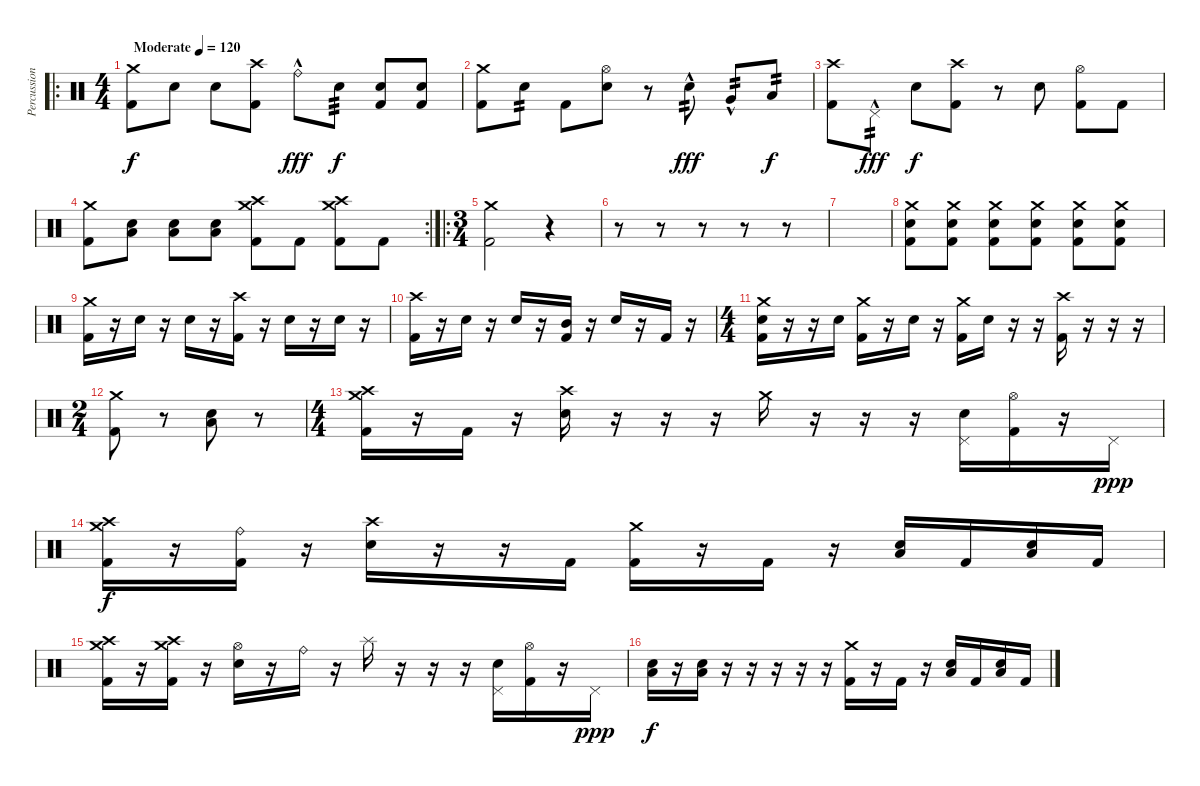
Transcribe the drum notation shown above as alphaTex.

\track ("Percussion" "Percussion") {instrument percussion}
\staff {score}
\articulation defaults
\ro
\ts (4 4)
\tempo (120 "Moderate")
\clef neutral
\ks c
("Crash medium (hit)" "Kick (hit) 2").8{dy f} "Electric Snare (hit)".8 "Electric Snare (hit)".8 ("Crash high (hit)" "Kick (hit) 2").8 "Ride (bell)"{hac}.8{dy fff} "Electric Snare (hit)".8{tp 3 dy f} ("Kick (hit) 2" "Electric Snare (hit)").8 ("Kick (hit) 2" "Electric Snare (hit)").8 |
("Crash medium (hit)" "Kick (hit) 2").8 "Electric Snare (hit)".8{tp 2} "Kick (hit) 2".8 ("Hi-Hat (open)" "Electric Snare (hit)").8 r.8 "Electric Snare (hit)"{hac}.8{tp 2 dy fff} "Very Low Tom (hit)"{hac}.8{tp 2} "Low Floor Tom (hit)".8{tp 2 dy f} |
("Crash high (hit)" "Kick (hit) 2").8 "Pedal Hi-Hat (hit)"{hac}.8{tp 2 dy fff} "Electric Snare (hit)".8{dy f} ("Crash high (hit)" "Kick (hit) 2").8 r.8 "Electric Snare (hit)".8 ("Hi-Hat (open)" "Kick (hit) 2").8 "Kick (hit) 2".8 |
\rc 2
("Crash medium (hit)" "Kick (hit) 2").8 ("Low Floor Tom (hit)" "Electric Snare (hit)").8 ("Low Floor Tom (hit)" "Electric Snare (hit)").8 ("Low Floor Tom (hit)" "Electric Snare (hit)").8 ("Crash medium (hit)" "Crash high (hit)" "Kick (hit) 2").8 "Kick (hit) 2".8 ("Crash medium (hit)" "Crash high (hit)" "Kick (hit) 2").8 "Kick (hit) 2".8 |
\ro
\ts (3 4)
("Crash medium (hit)" "Kick (hit) 2").2 r.4 |
r.8 r.8 r.8 r.8 r.8 |
|
("Crash medium (hit)" "Kick (hit) 2" "Electric Snare (hit)").8 ("Crash medium (hit)" "Kick (hit) 2" "Electric Snare (hit)").8 ("Crash medium (hit)" "Kick (hit) 2" "Electric Snare (hit)").8 ("Crash medium (hit)" "Kick (hit) 2" "Electric Snare (hit)").8 ("Crash medium (hit)" "Kick (hit) 2" "Electric Snare (hit)").8 ("Crash medium (hit)" "Kick (hit) 2" "Electric Snare (hit)").8 |
("Crash medium (hit)" "Kick (hit) 2").16 r.16 "Electric Snare (hit)".16 r.16 "Electric Snare (hit)".16 r.16 ("Crash high (hit)" "Kick (hit) 2").16 r.16 "Electric Snare (hit)".16 r.16 "Electric Snare (hit)".16 r.16 |
("Crash high (hit)" "Kick (hit) 2").16 r.16 "Electric Snare (hit)".16 r.16 "Electric Snare (hit)".16 r.16 ("Mid Tom (hit)" "Kick (hit) 2").16 r.16 "Electric Snare (hit)".16 r.16 "Kick (hit) 2".16 r.16 |
\ts (4 4)
("Crash medium (hit)" "Kick (hit) 2" "Electric Snare (hit)").16 r.16 r.16 "Electric Snare (hit)".16 ("Crash medium (hit)" "Kick (hit) 2").16 r.16 "Electric Snare (hit)".16 r.16 ("Crash medium (hit)" "Kick (hit) 2").16 "Electric Snare (hit)".16 r.16 r.16 ("Crash high (hit)" "Kick (hit) 2").16 r.16 r.16 r.16 |
\ts (2 4)
("Crash medium (hit)" "Kick (hit) 2").8 r.8 ("Low Floor Tom (hit)" "Electric Snare (hit)").8 r.8 |
\ts (4 4)
("Crash medium (hit)" "Crash high (hit)" "Kick (hit) 2").16 r.16 "Kick (hit) 2".16 r.16 ("Crash high (hit)" "Electric Snare (hit)").16 r.16 r.16 r.16 "Crash medium (hit)".16 r.16 r.16 r.16 ("Pedal Hi-Hat (hit)" "Electric Snare (hit)").16 ("Hi-Hat (open)" "Kick (hit) 2").16 r.16 "Pedal Hi-Hat (hit)".16{dy ppp} |
("Crash medium (hit)" "Crash high (hit)" "Kick (hit) 2").16{dy f} r.16 ("Ride (bell)" "Kick (hit) 2").16 r.16 ("Crash high (hit)" "Electric Snare (hit)").16 r.16 r.16 "Kick (hit) 2".16 ("Crash medium (hit)" "Kick (hit) 2").16 r.16 "Kick (hit) 2".16 r.16 ("Low Floor Tom (hit)" "Electric Snare (hit)").16 "Kick (hit) 2".16 ("Low Floor Tom (hit)" "Electric Snare (hit)").16 "Kick (hit) 2".16 |
("Crash medium (hit)" "Crash high (hit)" "Kick (hit) 2").16 r.16 ("Crash medium (hit)" "Crash high (hit)" "Kick (hit) 2").16 r.16 ("Hi-Hat (open)" "Electric Snare (hit)").16 r.16 "Ride (bell)".16 r.16 "Splash (hit)".16 r.16 r.16 r.16 ("Pedal Hi-Hat (hit)" "Electric Snare (hit)").16 ("Hi-Hat (open)" "Kick (hit) 2").16 r.16 "Pedal Hi-Hat (hit)".16{dy ppp} |
("Low Floor Tom (hit)" "Electric Snare (hit)").16{dy f} r.16 ("Low Floor Tom (hit)" "Electric Snare (hit)").16 r.16 r.16 r.16 r.16 r.16 ("Crash medium (hit)" "Kick (hit) 2").16 r.16 "Kick (hit) 2".16 r.16 ("Low Floor Tom (hit)" "Electric Snare (hit)").16 "Kick (hit) 2".16 ("Low Floor Tom (hit)" "Electric Snare (hit)").16 "Kick (hit) 2".16
